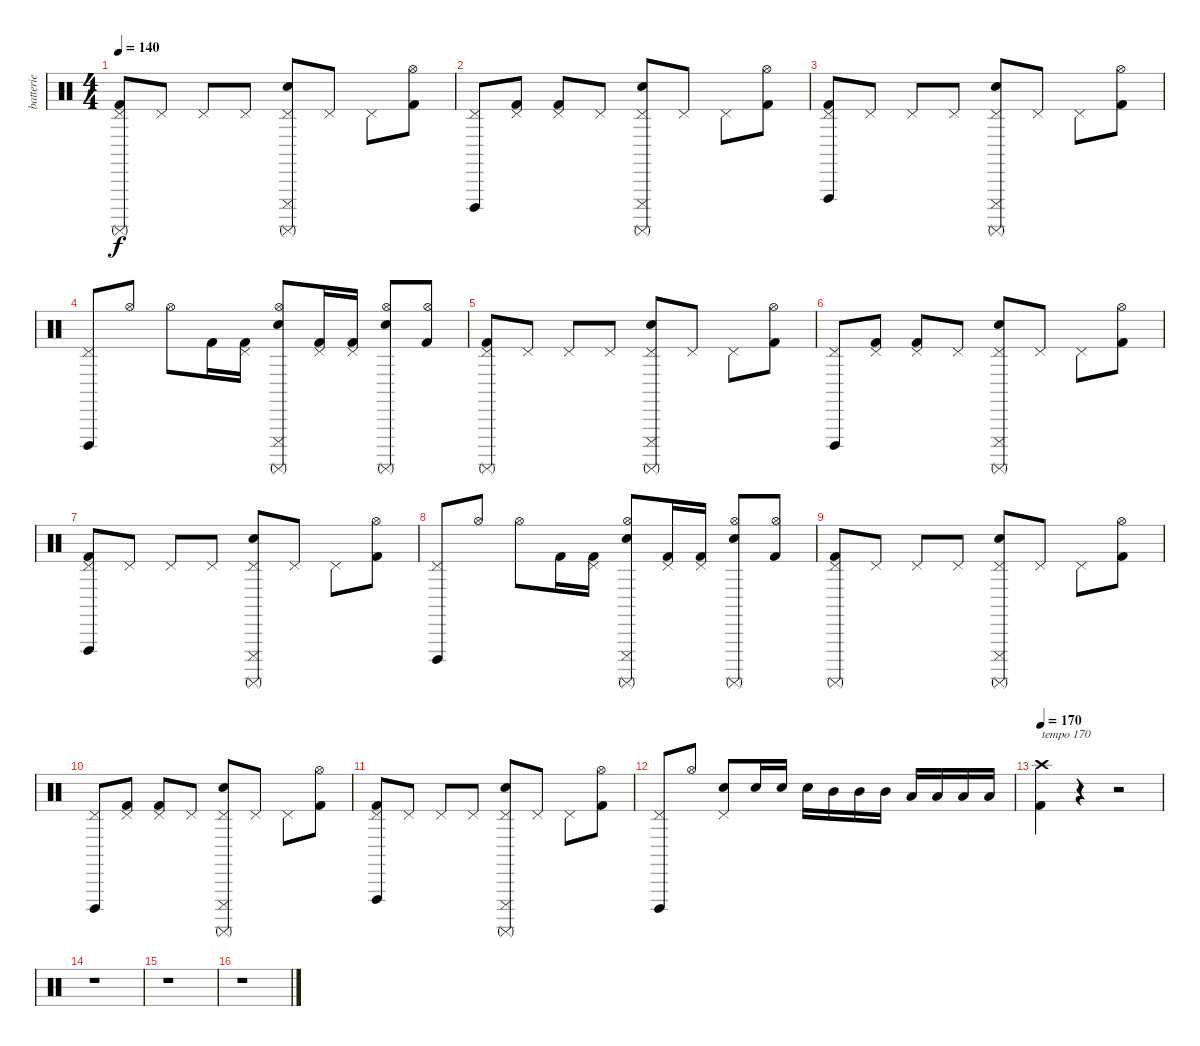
\track ("batterie" "batterie") {instrument percussion}
\staff {score}
\articulation defaults
\ts (4 4)
\tempo 140
\clef neutral
\ks c
("Surdo (mute)" "Pedal Hi-Hat (hit)" "Kick (hit) 2").8{dy f} "Pedal Hi-Hat (hit)".8 "Pedal Hi-Hat (hit)".8 "Pedal Hi-Hat (hit)".8 ("Surdo (mute)" "Cuica (mute)" "Pedal Hi-Hat (hit)" "Electric Snare (hit)").8 "Pedal Hi-Hat (hit)".8 "Pedal Hi-Hat (hit)".8 ("Hi-Hat (open)" "Kick (hit) 2").8 |
("Cuica (open)" "Pedal Hi-Hat (hit)").8 ("Pedal Hi-Hat (hit)" "Kick (hit) 2").8 ("Pedal Hi-Hat (hit)" "Kick (hit) 2").8 "Pedal Hi-Hat (hit)".8 ("Surdo (mute)" "Cuica (mute)" "Pedal Hi-Hat (hit)" "Electric Snare (hit)").8 "Pedal Hi-Hat (hit)".8 "Pedal Hi-Hat (hit)".8 ("Hi-Hat (open)" "Kick (hit) 2").8 |
("Vibraslap (hit)" "Pedal Hi-Hat (hit)" "Kick (hit) 2").8 "Pedal Hi-Hat (hit)".8 "Pedal Hi-Hat (hit)".8 "Pedal Hi-Hat (hit)".8 ("Surdo (mute)" "Cuica (mute)" "Pedal Hi-Hat (hit)" "Electric Snare (hit)").8 "Pedal Hi-Hat (hit)".8 "Pedal Hi-Hat (hit)".8 ("Hi-Hat (open)" "Kick (hit) 2").8 |
("Cuica (open)" "Pedal Hi-Hat (hit)").8 "Hi-Hat (open)".8 "Hi-Hat (open)".8 "Kick (hit) 2".16 ("Pedal Hi-Hat (hit)" "Kick (hit) 2").16 ("Surdo (mute)" "Cuica (mute)" "Hi-Hat (open)" "Electric Snare (hit)").8 ("Pedal Hi-Hat (hit)" "Kick (hit) 2").16 ("Pedal Hi-Hat (hit)" "Kick (hit) 2").16 ("Surdo (mute)" "Hi-Hat (open)" "Electric Snare (hit)").8 ("Hi-Hat (open)" "Kick (hit) 2").8 |
("Surdo (mute)" "Pedal Hi-Hat (hit)" "Kick (hit) 2").8 "Pedal Hi-Hat (hit)".8 "Pedal Hi-Hat (hit)".8 "Pedal Hi-Hat (hit)".8 ("Surdo (mute)" "Cuica (mute)" "Pedal Hi-Hat (hit)" "Electric Snare (hit)").8 "Pedal Hi-Hat (hit)".8 "Pedal Hi-Hat (hit)".8 ("Hi-Hat (open)" "Kick (hit) 2").8 |
("Cuica (open)" "Pedal Hi-Hat (hit)").8 ("Pedal Hi-Hat (hit)" "Kick (hit) 2").8 ("Pedal Hi-Hat (hit)" "Kick (hit) 2").8 "Pedal Hi-Hat (hit)".8 ("Surdo (mute)" "Cuica (mute)" "Pedal Hi-Hat (hit)" "Electric Snare (hit)").8 "Pedal Hi-Hat (hit)".8 "Pedal Hi-Hat (hit)".8 ("Hi-Hat (open)" "Kick (hit) 2").8 |
("Vibraslap (hit)" "Pedal Hi-Hat (hit)" "Kick (hit) 2").8 "Pedal Hi-Hat (hit)".8 "Pedal Hi-Hat (hit)".8 "Pedal Hi-Hat (hit)".8 ("Surdo (mute)" "Cuica (mute)" "Pedal Hi-Hat (hit)" "Electric Snare (hit)").8 "Pedal Hi-Hat (hit)".8 "Pedal Hi-Hat (hit)".8 ("Hi-Hat (open)" "Kick (hit) 2").8 |
("Cuica (open)" "Pedal Hi-Hat (hit)").8 "Hi-Hat (open)".8 "Hi-Hat (open)".8 "Kick (hit) 2".16 ("Pedal Hi-Hat (hit)" "Kick (hit) 2").16 ("Surdo (mute)" "Cuica (mute)" "Hi-Hat (open)" "Electric Snare (hit)").8 ("Pedal Hi-Hat (hit)" "Kick (hit) 2").16 ("Pedal Hi-Hat (hit)" "Kick (hit) 2").16 ("Surdo (mute)" "Hi-Hat (open)" "Electric Snare (hit)").8 ("Hi-Hat (open)" "Kick (hit) 2").8 |
("Surdo (mute)" "Pedal Hi-Hat (hit)" "Kick (hit) 2").8 "Pedal Hi-Hat (hit)".8 "Pedal Hi-Hat (hit)".8 "Pedal Hi-Hat (hit)".8 ("Surdo (mute)" "Cuica (mute)" "Pedal Hi-Hat (hit)" "Electric Snare (hit)").8 "Pedal Hi-Hat (hit)".8 "Pedal Hi-Hat (hit)".8 ("Hi-Hat (open)" "Kick (hit) 2").8 |
("Cuica (open)" "Pedal Hi-Hat (hit)").8 ("Pedal Hi-Hat (hit)" "Kick (hit) 2").8 ("Pedal Hi-Hat (hit)" "Kick (hit) 2").8 "Pedal Hi-Hat (hit)".8 ("Surdo (mute)" "Cuica (mute)" "Pedal Hi-Hat (hit)" "Electric Snare (hit)").8 "Pedal Hi-Hat (hit)".8 "Pedal Hi-Hat (hit)".8 ("Hi-Hat (open)" "Kick (hit) 2").8 |
("Vibraslap (hit)" "Pedal Hi-Hat (hit)" "Kick (hit) 2").8 "Pedal Hi-Hat (hit)".8 "Pedal Hi-Hat (hit)".8 "Pedal Hi-Hat (hit)".8 ("Surdo (mute)" "Cuica (mute)" "Pedal Hi-Hat (hit)" "Electric Snare (hit)").8 "Pedal Hi-Hat (hit)".8 "Pedal Hi-Hat (hit)".8 ("Hi-Hat (open)" "Kick (hit) 2").8 |
("Cuica (open)" "Pedal Hi-Hat (hit)").8 "Hi-Hat (open)".8 ("Pedal Hi-Hat (hit)" "Electric Snare (hit)").8 "Electric Snare (hit)".16 "Electric Snare (hit)".16 "Electric Snare (hit)".16 "Mid Tom (hit)".16 "Mid Tom (hit)".16 "Mid Tom (hit)".16 "Low Tom (hit)".16 "Low Tom (hit)".16 "Low Tom (hit)".16 "Low Tom (hit)".16 |
\tempo 170
("Crash high (hit)" "Kick (hit) 2").4{txt "tempo 170"} r.4 r.2 |
r.1 |
r.1 |
r.1
